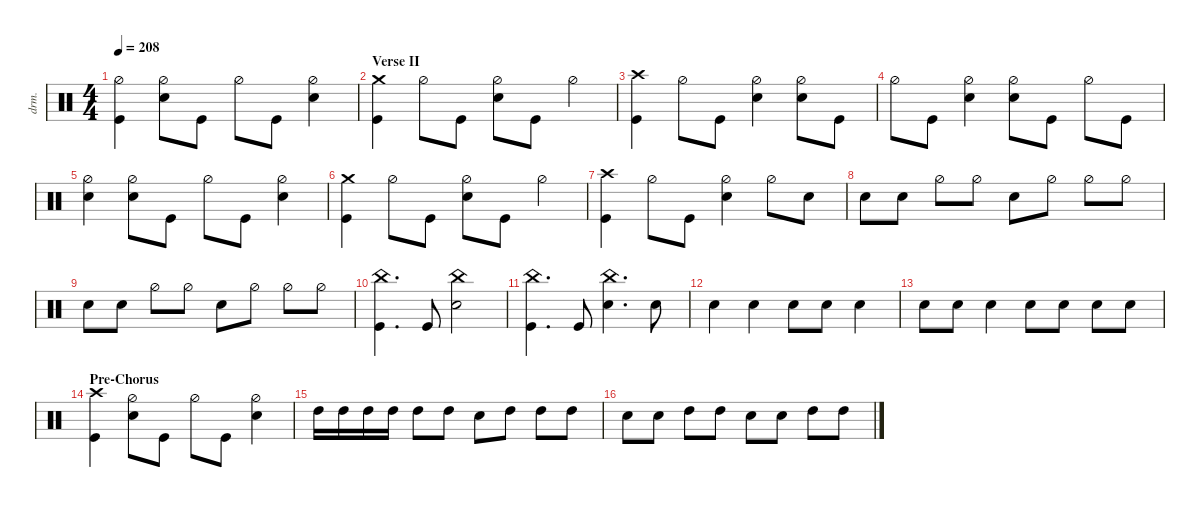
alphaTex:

\defaultSystemsLayout 4
\hideDynamics
\bracketExtendMode nobrackets
\otherSystemsTrackNameOrientation horizontal
\track ("Drums" "drm.") {multiBarRest instrument percussion}
\staff
\articulation defaults
\ts (4 4)
\tempo 208
\clef neutral
\ks c
("Kick (hit)" "Hi-Hat (half)").4{dy f} ("Snare (hit) 2" "Hi-Hat (half)").8 "Kick (hit)".8 "Hi-Hat (half)".8 "Kick (hit)".8 ("Snare (hit) 2" "Hi-Hat (half)").4 |
\section ("" "Verse II")
("Crash medium (hit)" "Kick (hit)").4 "Hi-Hat (half)".8 "Kick (hit)".8 ("Hi-Hat (half)" "Snare (hit) 2").8 "Kick (hit)".8 "Hi-Hat (half)".4 |
("Crash high (hit)" "Kick (hit)").4 "Hi-Hat (half)".8 "Kick (hit)".8 ("Hi-Hat (half)" "Snare (hit) 2").4 ("Snare (hit) 2" "Hi-Hat (half)").8 "Kick (hit)".8 |
"Hi-Hat (half)".8 "Kick (hit)".8 ("Snare (hit) 2" "Hi-Hat (half)").4 ("Snare (hit) 2" "Hi-Hat (half)").8 "Kick (hit)".8 "Hi-Hat (half)".8 "Kick (hit)".8 |
("Snare (hit) 2" "Hi-Hat (half)").4 ("Snare (hit) 2" "Hi-Hat (half)").8 "Kick (hit)".8 "Hi-Hat (half)".8 "Kick (hit)".8 ("Snare (hit) 2" "Hi-Hat (half)").4 |
("Crash medium (hit)" "Kick (hit)").4 "Hi-Hat (half)".8 "Kick (hit)".8 ("Hi-Hat (half)" "Snare (hit) 2").8 "Kick (hit)".8 "Hi-Hat (half)".4 |
("Kick (hit)" "Crash high (hit)").4 "Hi-Hat (half)".8 "Kick (hit)".8 ("Snare (hit) 2" "Hi-Hat (half)").4 "Hi-Hat (half)".8 "Snare (hit) 2".8 |
"Snare (hit) 2".8 "Snare (hit) 2".8 "Hi-Hat (half)".8 "Hi-Hat (half)".8 "Snare (hit) 2".8 "Hi-Hat (half)".8 "Hi-Hat (half)".8 "Hi-Hat (half)".8 |
"Snare (hit) 2".8 "Snare (hit) 2".8 "Hi-Hat (half)".8 "Hi-Hat (half)".8 "Snare (hit) 2".8 "Hi-Hat (half)".8 "Hi-Hat (half)".8 "Hi-Hat (half)".8 |
("China (hit)" "Kick (hit)").4{d} "Kick (hit)".8 ("Snare (hit) 2" "China (hit)").2 |
("China (hit)" "Kick (hit)").4{d} "Kick (hit)".8 ("Snare (hit) 2" "China (hit)").4{d} "Snare (hit) 2".8 |
"Snare (hit) 2".4 "Snare (hit) 2".4 "Snare (hit) 2".8 "Snare (hit) 2".8 "Snare (hit) 2".4 |
"Snare (hit) 2".8 "Snare (hit) 2".8 "Snare (hit) 2".4 "Snare (hit) 2".8 "Snare (hit) 2".8 "Snare (hit) 2".8 "Snare (hit) 2".8 |
\section ("" "Pre-Chorus")
("Crash high (hit)" "Kick (hit)").4 ("Snare (hit) 2" "Hi-Hat (half)").8 "Kick (hit)".8 "Hi-Hat (half)".8 "Kick (hit)".8 ("Snare (hit) 2" "Hi-Hat (half)").4 |
"High Tom (hit)".16{dy ff} "High Tom (hit)".16 "High Tom (hit)".16 "High Tom (hit)".16 "High Tom (hit)".8 "High Tom (hit)".8 "Snare (hit) 2".8{dy f} "High Tom (hit)".8{dy ff} "High Tom (hit)".8 "High Tom (hit)".8 |
"Snare (hit) 2".8{dy f} "Snare (hit) 2".8 "High Tom (hit)".8{dy ff} "High Tom (hit)".8 "Snare (hit) 2".8{dy f} "Snare (hit) 2".8 "High Tom (hit)".8{dy ff} "High Tom (hit)".8
